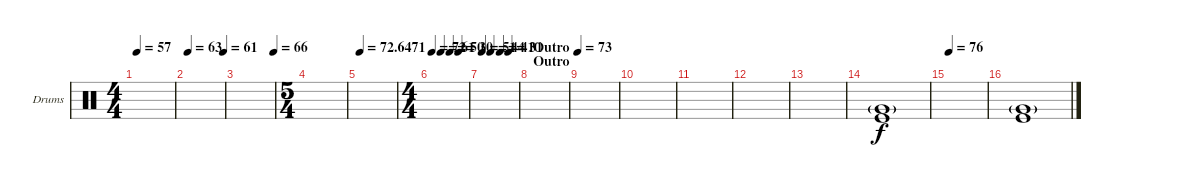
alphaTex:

\defaultSystemsLayout 4
\bracketExtendMode groupsimilarinstruments
\firstSystemTrackNameOrientation horizontal
\otherSystemsTrackNameOrientation horizontal
\track ("Drumkit" "Drums") {instrument percussion}
\staff {score}
\articulation defaults
\ts (4 4)
\tempo 57
\clef neutral
\ks aminor
|
\tempo 63
\tempo (61 0.989011)
|
\tempo (66 1)
|
\ts (5 4)
\beaming (8 4 4 2)
|
\tempo
72.6471 |
\ts (4 4)
\tempo 72
\tempo (61 0.25)
\tempo (50 0.5)
\tempo (30 0.75)
|
\tempo (51 0.00625)
\tempo (44 0.24375)
\tempo (41 0.5125)
\tempo (31 0.75)
|
\section ("" "Outro")
\tempo (73 "Outro")
|
|
|
|
|
|
("Kick (hit)" "Very Low Tom (hit)"{g}).1 |
\tempo 76
|
("Kick (hit)" "Very Low Tom (hit)"{g}).1
